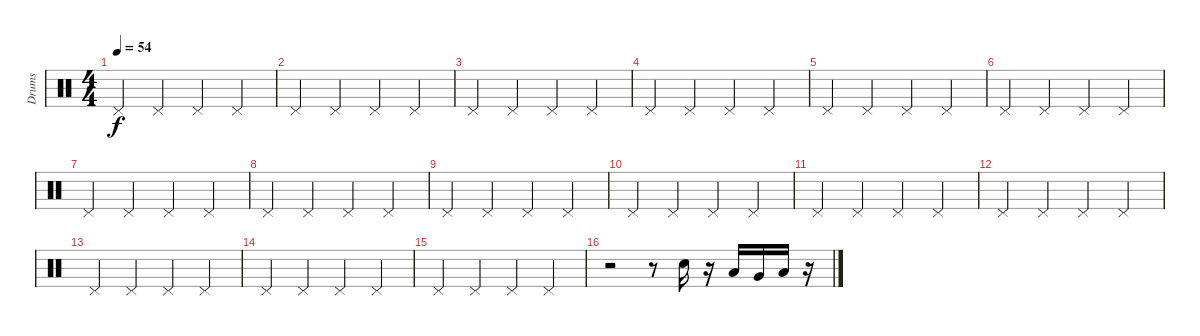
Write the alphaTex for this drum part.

\track ("Drums" "Drums") {instrument percussion}
\staff {score}
\articulation defaults
\ts (4 4)
\tempo 54
\clef neutral
\ks c "Pedal Hi-Hat (hit)".4{dy f} "Pedal Hi-Hat (hit)".4 "Pedal Hi-Hat (hit)".4 "Pedal Hi-Hat (hit)".4
|
"Pedal Hi-Hat (hit)".4 "Pedal Hi-Hat (hit)".4 "Pedal Hi-Hat (hit)".4 "Pedal Hi-Hat (hit)".4 |
"Pedal Hi-Hat (hit)".4 "Pedal Hi-Hat (hit)".4 "Pedal Hi-Hat (hit)".4 "Pedal Hi-Hat (hit)".4 |
"Pedal Hi-Hat (hit)".4 "Pedal Hi-Hat (hit)".4 "Pedal Hi-Hat (hit)".4 "Pedal Hi-Hat (hit)".4 |
"Pedal Hi-Hat (hit)".4 "Pedal Hi-Hat (hit)".4 "Pedal Hi-Hat (hit)".4 "Pedal Hi-Hat (hit)".4 |
"Pedal Hi-Hat (hit)".4 "Pedal Hi-Hat (hit)".4 "Pedal Hi-Hat (hit)".4 "Pedal Hi-Hat (hit)".4 |
"Pedal Hi-Hat (hit)".4 "Pedal Hi-Hat (hit)".4 "Pedal Hi-Hat (hit)".4 "Pedal Hi-Hat (hit)".4 |
"Pedal Hi-Hat (hit)".4 "Pedal Hi-Hat (hit)".4 "Pedal Hi-Hat (hit)".4 "Pedal Hi-Hat (hit)".4 |
"Pedal Hi-Hat (hit)".4 "Pedal Hi-Hat (hit)".4 "Pedal Hi-Hat (hit)".4 "Pedal Hi-Hat (hit)".4 |
"Pedal Hi-Hat (hit)".4 "Pedal Hi-Hat (hit)".4 "Pedal Hi-Hat (hit)".4 "Pedal Hi-Hat (hit)".4 |
"Pedal Hi-Hat (hit)".4 "Pedal Hi-Hat (hit)".4 "Pedal Hi-Hat (hit)".4 "Pedal Hi-Hat (hit)".4 |
"Pedal Hi-Hat (hit)".4 "Pedal Hi-Hat (hit)".4 "Pedal Hi-Hat (hit)".4 "Pedal Hi-Hat (hit)".4 |
"Pedal Hi-Hat (hit)".4 "Pedal Hi-Hat (hit)".4 "Pedal Hi-Hat (hit)".4 "Pedal Hi-Hat (hit)".4 |
"Pedal Hi-Hat (hit)".4 "Pedal Hi-Hat (hit)".4 "Pedal Hi-Hat (hit)".4 "Pedal Hi-Hat (hit)".4 |
"Pedal Hi-Hat (hit)".4 "Pedal Hi-Hat (hit)".4 "Pedal Hi-Hat (hit)".4 "Pedal Hi-Hat (hit)".4 |
r.2 r.8 "Electric Snare (hit)".16 r.16 "Low Tom (hit)".16 "Very Low Tom (hit)".16 "Low Tom (hit)".16 r.16
